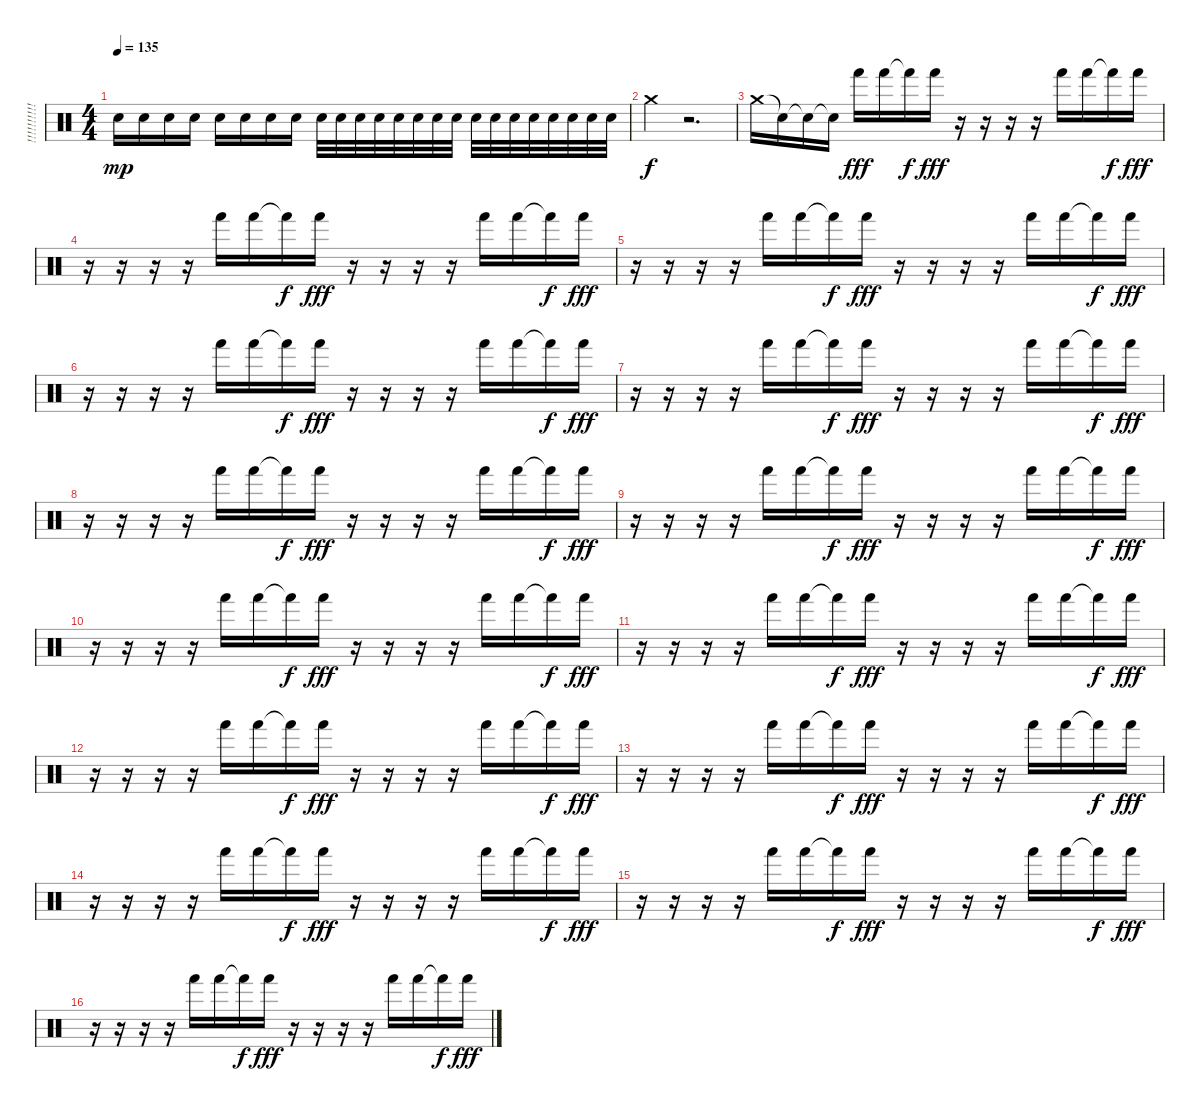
\track ("!!!!!!!!!!!!!" "!!!!!!!!!!") {instrument percussion}
\staff {score}
\articulation defaults
\ts (4 4)
\tempo 135
\clef neutral
\ks c "Electric Snare (hit)".16{dy mp} "Electric Snare (hit)".16 "Electric Snare (hit)".16 "Electric Snare (hit)".16 "Electric Snare (hit)".16 "Electric Snare (hit)".16 "Electric Snare (hit)".16 "Electric Snare (hit)".16 "Electric Snare (hit)".32 "Electric Snare (hit)".32 "Electric Snare (hit)".32 "Electric Snare (hit)".32 "Electric Snare (hit)".32 "Electric Snare (hit)".32 "Electric Snare (hit)".32 "Electric Snare (hit)".32 "Electric Snare (hit)".32 "Electric Snare (hit)".32 "Electric Snare (hit)".32 "Electric Snare (hit)".32 "Electric Snare (hit)".32 "Electric Snare (hit)".32 "Electric Snare (hit)".32 "Electric Snare (hit)".32
|
"Crash medium (hit)".4{dy f} r.2{d} |
"Crash medium (hit)".16 "Snare (hit)"{t}.16 "Snare (hit)"{t}.16 "Snare (hit)"{t}.16 "Hand (hit)".16{dy fff} "Hand (hit)".16 "Hand (hit)"{t}.16{dy f} "Hand (hit)".16{dy fff} r.16 r.16 r.16 r.16 "Hand (hit)".16 "Hand (hit)".16 "Hand (hit)"{t}.16{dy f} "Hand (hit)".16{dy fff} |
r.16 r.16 r.16 r.16 "Hand (hit)".16 "Hand (hit)".16 "Hand (hit)"{t}.16{dy f} "Hand (hit)".16{dy fff} r.16 r.16 r.16 r.16 "Hand (hit)".16 "Hand (hit)".16 "Hand (hit)"{t}.16{dy f} "Hand (hit)".16{dy fff} |
r.16 r.16 r.16 r.16 "Hand (hit)".16 "Hand (hit)".16 "Hand (hit)"{t}.16{dy f} "Hand (hit)".16{dy fff} r.16 r.16 r.16 r.16 "Hand (hit)".16 "Hand (hit)".16 "Hand (hit)"{t}.16{dy f} "Hand (hit)".16{dy fff} |
r.16 r.16 r.16 r.16 "Hand (hit)".16 "Hand (hit)".16 "Hand (hit)"{t}.16{dy f} "Hand (hit)".16{dy fff} r.16 r.16 r.16 r.16 "Hand (hit)".16 "Hand (hit)".16 "Hand (hit)"{t}.16{dy f} "Hand (hit)".16{dy fff} |
r.16 r.16 r.16 r.16 "Hand (hit)".16 "Hand (hit)".16 "Hand (hit)"{t}.16{dy f} "Hand (hit)".16{dy fff} r.16 r.16 r.16 r.16 "Hand (hit)".16 "Hand (hit)".16 "Hand (hit)"{t}.16{dy f} "Hand (hit)".16{dy fff} |
r.16 r.16 r.16 r.16 "Hand (hit)".16 "Hand (hit)".16 "Hand (hit)"{t}.16{dy f} "Hand (hit)".16{dy fff} r.16 r.16 r.16 r.16 "Hand (hit)".16 "Hand (hit)".16 "Hand (hit)"{t}.16{dy f} "Hand (hit)".16{dy fff} |
r.16 r.16 r.16 r.16 "Hand (hit)".16 "Hand (hit)".16 "Hand (hit)"{t}.16{dy f} "Hand (hit)".16{dy fff} r.16 r.16 r.16 r.16 "Hand (hit)".16 "Hand (hit)".16 "Hand (hit)"{t}.16{dy f} "Hand (hit)".16{dy fff} |
r.16 r.16 r.16 r.16 "Hand (hit)".16 "Hand (hit)".16 "Hand (hit)"{t}.16{dy f} "Hand (hit)".16{dy fff} r.16 r.16 r.16 r.16 "Hand (hit)".16 "Hand (hit)".16 "Hand (hit)"{t}.16{dy f} "Hand (hit)".16{dy fff} |
r.16 r.16 r.16 r.16 "Hand (hit)".16 "Hand (hit)".16 "Hand (hit)"{t}.16{dy f} "Hand (hit)".16{dy fff} r.16 r.16 r.16 r.16 "Hand (hit)".16 "Hand (hit)".16 "Hand (hit)"{t}.16{dy f} "Hand (hit)".16{dy fff} |
r.16 r.16 r.16 r.16 "Hand (hit)".16 "Hand (hit)".16 "Hand (hit)"{t}.16{dy f} "Hand (hit)".16{dy fff} r.16 r.16 r.16 r.16 "Hand (hit)".16 "Hand (hit)".16 "Hand (hit)"{t}.16{dy f} "Hand (hit)".16{dy fff} |
r.16 r.16 r.16 r.16 "Hand (hit)".16 "Hand (hit)".16 "Hand (hit)"{t}.16{dy f} "Hand (hit)".16{dy fff} r.16 r.16 r.16 r.16 "Hand (hit)".16 "Hand (hit)".16 "Hand (hit)"{t}.16{dy f} "Hand (hit)".16{dy fff} |
r.16 r.16 r.16 r.16 "Hand (hit)".16 "Hand (hit)".16 "Hand (hit)"{t}.16{dy f} "Hand (hit)".16{dy fff} r.16 r.16 r.16 r.16 "Hand (hit)".16 "Hand (hit)".16 "Hand (hit)"{t}.16{dy f} "Hand (hit)".16{dy fff} |
r.16 r.16 r.16 r.16 "Hand (hit)".16 "Hand (hit)".16 "Hand (hit)"{t}.16{dy f} "Hand (hit)".16{dy fff} r.16 r.16 r.16 r.16 "Hand (hit)".16 "Hand (hit)".16 "Hand (hit)"{t}.16{dy f} "Hand (hit)".16{dy fff} |
r.16 r.16 r.16 r.16 "Hand (hit)".16 "Hand (hit)".16 "Hand (hit)"{t}.16{dy f} "Hand (hit)".16{dy fff} r.16 r.16 r.16 r.16 "Hand (hit)".16 "Hand (hit)".16 "Hand (hit)"{t}.16{dy f} "Hand (hit)".16{dy fff}
